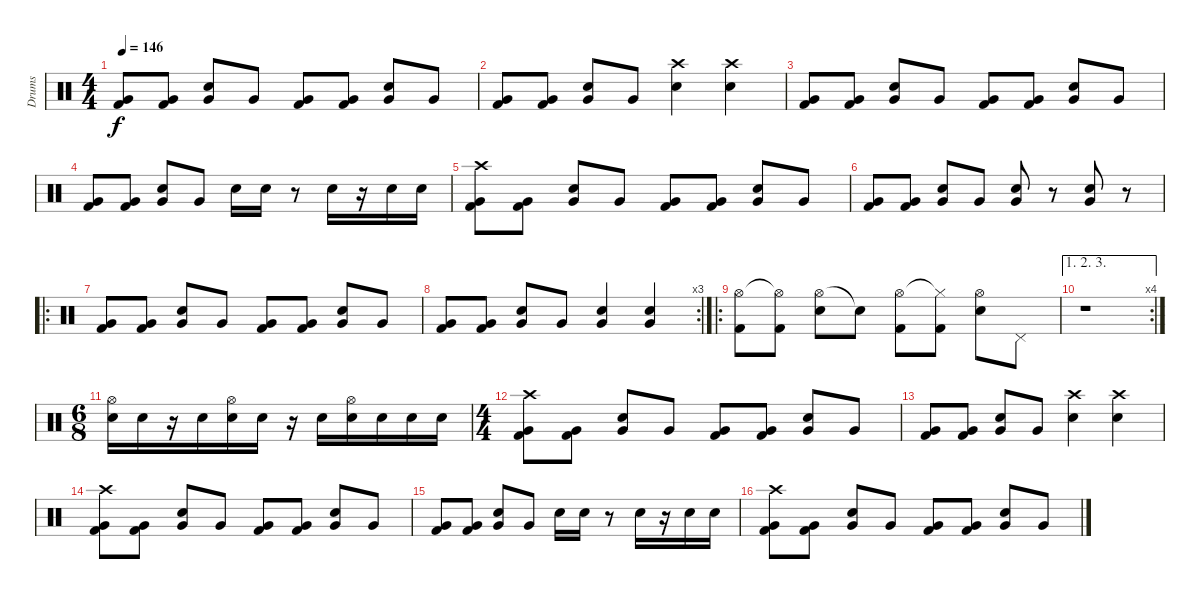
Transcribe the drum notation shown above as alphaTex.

\track ("Drums" "Drums") {instrument percussion}
\staff {score}
\articulation defaults
\ts (4 4)
\tempo 146
\clef neutral
\ks c
("Very Low Tom (hit)" "Kick (hit) 2").8{dy f} ("Very Low Tom (hit)" "Kick (hit) 2").8 ("Very Low Tom (hit)" "Snare (hit) 2").8 "Very Low Tom (hit)".8 ("Very Low Tom (hit)" "Kick (hit) 2").8 ("Very Low Tom (hit)" "Kick (hit) 2").8 ("Very Low Tom (hit)" "Snare (hit) 2").8 "Very Low Tom (hit)".8 |
("Very Low Tom (hit)" "Kick (hit) 2").8 ("Very Low Tom (hit)" "Kick (hit) 2").8 ("Very Low Tom (hit)" "Snare (hit) 2").8 "Very Low Tom (hit)".8 ("Crash high (hit)" "Snare (hit) 2").4 ("Crash high (hit)" "Snare (hit) 2").4 |
("Very Low Tom (hit)" "Kick (hit) 2").8 ("Very Low Tom (hit)" "Kick (hit) 2").8 ("Very Low Tom (hit)" "Snare (hit) 2").8 "Very Low Tom (hit)".8 ("Very Low Tom (hit)" "Kick (hit) 2").8 ("Very Low Tom (hit)" "Kick (hit) 2").8 ("Very Low Tom (hit)" "Snare (hit) 2").8 "Very Low Tom (hit)".8 |
("Very Low Tom (hit)" "Kick (hit) 2").8 ("Very Low Tom (hit)" "Kick (hit) 2").8 ("Very Low Tom (hit)" "Snare (hit) 2").8 "Very Low Tom (hit)".8 "Snare (hit) 2".16 "Snare (hit) 2".16 r.8 "Snare (hit) 2".16 r.16 "Snare (hit) 2".16 "Snare (hit) 2".16 |
("Crash high (hit)" "Very Low Tom (hit)" "Kick (hit) 2").8 ("Very Low Tom (hit)" "Kick (hit) 2").8 ("Very Low Tom (hit)" "Snare (hit) 2").8 "Very Low Tom (hit)".8 ("Very Low Tom (hit)" "Kick (hit) 2").8 ("Very Low Tom (hit)" "Kick (hit) 2").8 ("Very Low Tom (hit)" "Snare (hit) 2").8 "Very Low Tom (hit)".8 |
("Very Low Tom (hit)" "Kick (hit) 2").8 ("Very Low Tom (hit)" "Kick (hit) 2").8 ("Very Low Tom (hit)" "Snare (hit) 2").8 "Very Low Tom (hit)".8 ("Very Low Tom (hit)" "Snare (hit) 2").8 r.8 ("Very Low Tom (hit)" "Snare (hit) 2").8 r.8 |
\ro
("Very Low Tom (hit)" "Kick (hit) 2").8 ("Very Low Tom (hit)" "Kick (hit) 2").8 ("Very Low Tom (hit)" "Snare (hit) 2").8 "Very Low Tom (hit)".8 ("Very Low Tom (hit)" "Kick (hit) 2").8 ("Very Low Tom (hit)" "Kick (hit) 2").8 ("Very Low Tom (hit)" "Snare (hit) 2").8 "Very Low Tom (hit)".8 |
\rc 3
("Very Low Tom (hit)" "Kick (hit) 2").8 ("Very Low Tom (hit)" "Kick (hit) 2").8 ("Very Low Tom (hit)" "Snare (hit) 2").8 "Very Low Tom (hit)".8 ("Very Low Tom (hit)" "Snare (hit) 2").4 ("Very Low Tom (hit)" "Snare (hit) 2").4 |
\ro
("Hi-Hat (open)" "Kick (hit) 2").8 ("Hi-Hat (open)"{t} "Kick (hit) 2").8 ("Hi-Hat (open)" "Snare (hit) 2").8 "Snare (hit)"{t}.8 ("Hi-Hat (open)" "Kick (hit) 2").8 ("Hi-Hat (closed)"{t} "Kick (hit) 2").8 ("Hi-Hat (open)" "Snare (hit) 2").8 "Pedal Hi-Hat (hit)".8 |
\ae (1 2 3)
\rc 4
r.1 |
\ts (6 8)
("Hi-Hat (open)" "Snare (hit) 2").16 "Snare (hit) 2".16 r.16 "Snare (hit) 2".16 ("Hi-Hat (open)" "Snare (hit) 2").16 "Snare (hit) 2".16 r.16 "Snare (hit) 2".16 ("Hi-Hat (open)" "Snare (hit) 2").16 "Snare (hit) 2".16 "Snare (hit) 2".16 "Snare (hit) 2".16 |
\ts (4 4)
("Crash high (hit)" "Very Low Tom (hit)" "Kick (hit) 2").8 ("Very Low Tom (hit)" "Kick (hit) 2").8 ("Very Low Tom (hit)" "Snare (hit) 2").8 "Very Low Tom (hit)".8 ("Very Low Tom (hit)" "Kick (hit) 2").8 ("Very Low Tom (hit)" "Kick (hit) 2").8 ("Very Low Tom (hit)" "Snare (hit) 2").8 "Very Low Tom (hit)".8 |
("Very Low Tom (hit)" "Kick (hit) 2").8 ("Very Low Tom (hit)" "Kick (hit) 2").8 ("Very Low Tom (hit)" "Snare (hit) 2").8 "Very Low Tom (hit)".8 ("Crash high (hit)" "Snare (hit) 2").4 ("Crash high (hit)" "Snare (hit) 2").4 |
("Crash high (hit)" "Very Low Tom (hit)" "Kick (hit) 2").8 ("Very Low Tom (hit)" "Kick (hit) 2").8 ("Very Low Tom (hit)" "Snare (hit) 2").8 "Very Low Tom (hit)".8 ("Very Low Tom (hit)" "Kick (hit) 2").8 ("Very Low Tom (hit)" "Kick (hit) 2").8 ("Very Low Tom (hit)" "Snare (hit) 2").8 "Very Low Tom (hit)".8 |
("Very Low Tom (hit)" "Kick (hit) 2").8 ("Very Low Tom (hit)" "Kick (hit) 2").8 ("Very Low Tom (hit)" "Snare (hit) 2").8 "Very Low Tom (hit)".8 "Snare (hit) 2".16 "Snare (hit) 2".16 r.8 "Snare (hit) 2".16 r.16 "Snare (hit) 2".16 "Snare (hit) 2".16 |
("Crash high (hit)" "Very Low Tom (hit)" "Kick (hit) 2").8 ("Very Low Tom (hit)" "Kick (hit) 2").8 ("Very Low Tom (hit)" "Snare (hit) 2").8 "Very Low Tom (hit)".8 ("Very Low Tom (hit)" "Kick (hit) 2").8 ("Very Low Tom (hit)" "Kick (hit) 2").8 ("Very Low Tom (hit)" "Snare (hit) 2").8 "Very Low Tom (hit)".8
